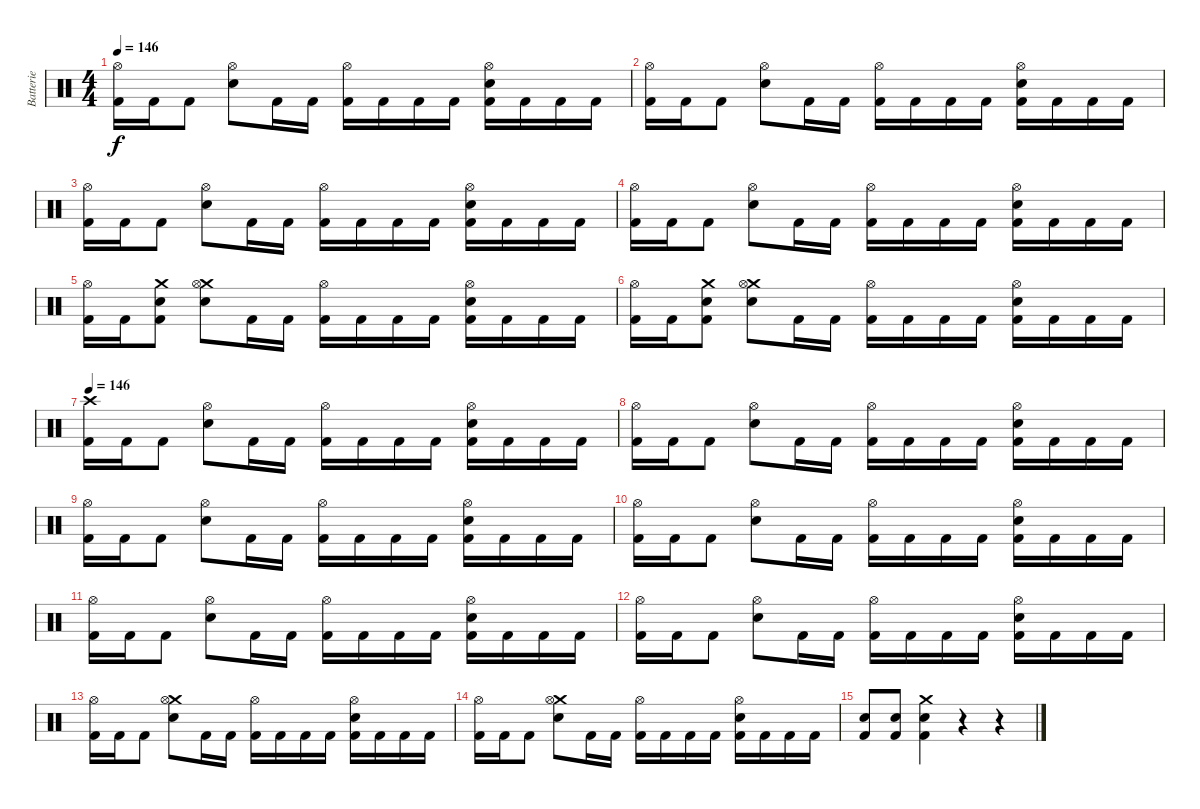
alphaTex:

\track ("Batterie" "Batterie") {instrument percussion}
\staff {score}
\articulation defaults
\ts (4 4)
\tempo 146
\clef neutral
\ks c
("Hi-Hat (open)" "Kick (hit) 2").16{dy f} "Kick (hit) 2".16 "Kick (hit) 2".8 ("Hi-Hat (open)" "Electric Snare (hit)").8 "Kick (hit) 2".16 "Kick (hit) 2".16 ("Hi-Hat (open)" "Kick (hit) 2").16 "Kick (hit) 2".16 "Kick (hit) 2".16 "Kick (hit) 2".16 ("Electric Snare (hit)" "Hi-Hat (open)" "Kick (hit) 2").16 "Kick (hit) 2".16 "Kick (hit) 2".16 "Kick (hit) 2".16 |
("Hi-Hat (open)" "Kick (hit) 2").16 "Kick (hit) 2".16 "Kick (hit) 2".8 ("Hi-Hat (open)" "Electric Snare (hit)").8 "Kick (hit) 2".16 "Kick (hit) 2".16 ("Hi-Hat (open)" "Kick (hit) 2").16 "Kick (hit) 2".16 "Kick (hit) 2".16 "Kick (hit) 2".16 ("Electric Snare (hit)" "Hi-Hat (open)" "Kick (hit) 2").16 "Kick (hit) 2".16 "Kick (hit) 2".16 "Kick (hit) 2".16 |
("Hi-Hat (open)" "Kick (hit) 2").16 "Kick (hit) 2".16 "Kick (hit) 2".8 ("Hi-Hat (open)" "Electric Snare (hit)").8 "Kick (hit) 2".16 "Kick (hit) 2".16 ("Hi-Hat (open)" "Kick (hit) 2").16 "Kick (hit) 2".16 "Kick (hit) 2".16 "Kick (hit) 2".16 ("Electric Snare (hit)" "Hi-Hat (open)" "Kick (hit) 2").16 "Kick (hit) 2".16 "Kick (hit) 2".16 "Kick (hit) 2".16 |
("Hi-Hat (open)" "Kick (hit) 2").16 "Kick (hit) 2".16 "Kick (hit) 2".8 ("Hi-Hat (open)" "Electric Snare (hit)").8 "Kick (hit) 2".16 "Kick (hit) 2".16 ("Hi-Hat (open)" "Kick (hit) 2").16 "Kick (hit) 2".16 "Kick (hit) 2".16 "Kick (hit) 2".16 ("Electric Snare (hit)" "Hi-Hat (open)" "Kick (hit) 2").16 "Kick (hit) 2".16 "Kick (hit) 2".16 "Kick (hit) 2".16 |
("Hi-Hat (open)" "Kick (hit) 2").16 "Kick (hit) 2".16 ("Crash medium (hit)" "Electric Snare (hit)" "Kick (hit) 2").8 ("Crash medium (hit)" "Hi-Hat (open)" "Electric Snare (hit)").8 "Kick (hit) 2".16 "Kick (hit) 2".16 ("Hi-Hat (open)" "Kick (hit) 2").16 "Kick (hit) 2".16 "Kick (hit) 2".16 "Kick (hit) 2".16 ("Electric Snare (hit)" "Hi-Hat (open)" "Kick (hit) 2").16 "Kick (hit) 2".16 "Kick (hit) 2".16 "Kick (hit) 2".16 |
("Hi-Hat (open)" "Kick (hit) 2").16 "Kick (hit) 2".16 ("Crash medium (hit)" "Electric Snare (hit)" "Kick (hit) 2").8 ("Crash medium (hit)" "Hi-Hat (open)" "Electric Snare (hit)").8 "Kick (hit) 2".16 "Kick (hit) 2".16 ("Hi-Hat (open)" "Kick (hit) 2").16 "Kick (hit) 2".16 "Kick (hit) 2".16 "Kick (hit) 2".16 ("Electric Snare (hit)" "Hi-Hat (open)" "Kick (hit) 2").16 "Kick (hit) 2".16 "Kick (hit) 2".16 "Kick (hit) 2".16 |
\tempo 146
("Crash high (hit)" "Kick (hit) 2").16 "Kick (hit) 2".16 "Kick (hit) 2".8 ("Hi-Hat (open)" "Electric Snare (hit)").8 "Kick (hit) 2".16 "Kick (hit) 2".16 ("Hi-Hat (open)" "Kick (hit) 2").16 "Kick (hit) 2".16 "Kick (hit) 2".16 "Kick (hit) 2".16 ("Electric Snare (hit)" "Hi-Hat (open)" "Kick (hit) 2").16 "Kick (hit) 2".16 "Kick (hit) 2".16 "Kick (hit) 2".16 |
("Hi-Hat (open)" "Kick (hit) 2").16 "Kick (hit) 2".16 "Kick (hit) 2".8 ("Hi-Hat (open)" "Electric Snare (hit)").8 "Kick (hit) 2".16 "Kick (hit) 2".16 ("Hi-Hat (open)" "Kick (hit) 2").16 "Kick (hit) 2".16 "Kick (hit) 2".16 "Kick (hit) 2".16 ("Electric Snare (hit)" "Hi-Hat (open)" "Kick (hit) 2").16 "Kick (hit) 2".16 "Kick (hit) 2".16 "Kick (hit) 2".16 |
("Hi-Hat (open)" "Kick (hit) 2").16 "Kick (hit) 2".16 "Kick (hit) 2".8 ("Hi-Hat (open)" "Electric Snare (hit)").8 "Kick (hit) 2".16 "Kick (hit) 2".16 ("Hi-Hat (open)" "Kick (hit) 2").16 "Kick (hit) 2".16 "Kick (hit) 2".16 "Kick (hit) 2".16 ("Electric Snare (hit)" "Hi-Hat (open)" "Kick (hit) 2").16 "Kick (hit) 2".16 "Kick (hit) 2".16 "Kick (hit) 2".16 |
("Hi-Hat (open)" "Kick (hit) 2").16 "Kick (hit) 2".16 "Kick (hit) 2".8 ("Hi-Hat (open)" "Electric Snare (hit)").8 "Kick (hit) 2".16 "Kick (hit) 2".16 ("Hi-Hat (open)" "Kick (hit) 2").16 "Kick (hit) 2".16 "Kick (hit) 2".16 "Kick (hit) 2".16 ("Electric Snare (hit)" "Hi-Hat (open)" "Kick (hit) 2").16 "Kick (hit) 2".16 "Kick (hit) 2".16 "Kick (hit) 2".16 |
("Hi-Hat (open)" "Kick (hit) 2").16 "Kick (hit) 2".16 "Kick (hit) 2".8 ("Hi-Hat (open)" "Electric Snare (hit)").8 "Kick (hit) 2".16 "Kick (hit) 2".16 ("Hi-Hat (open)" "Kick (hit) 2").16 "Kick (hit) 2".16 "Kick (hit) 2".16 "Kick (hit) 2".16 ("Electric Snare (hit)" "Hi-Hat (open)" "Kick (hit) 2").16 "Kick (hit) 2".16 "Kick (hit) 2".16 "Kick (hit) 2".16 |
("Hi-Hat (open)" "Kick (hit) 2").16 "Kick (hit) 2".16 "Kick (hit) 2".8 ("Hi-Hat (open)" "Electric Snare (hit)").8 "Kick (hit) 2".16 "Kick (hit) 2".16 ("Hi-Hat (open)" "Kick (hit) 2").16 "Kick (hit) 2".16 "Kick (hit) 2".16 "Kick (hit) 2".16 ("Electric Snare (hit)" "Hi-Hat (open)" "Kick (hit) 2").16 "Kick (hit) 2".16 "Kick (hit) 2".16 "Kick (hit) 2".16 |
("Hi-Hat (open)" "Kick (hit) 2").16 "Kick (hit) 2".16 "Kick (hit) 2".8 ("Crash medium (hit)" "Hi-Hat (open)" "Electric Snare (hit)").8 "Kick (hit) 2".16 "Kick (hit) 2".16 ("Hi-Hat (open)" "Kick (hit) 2").16 "Kick (hit) 2".16 "Kick (hit) 2".16 "Kick (hit) 2".16 ("Electric Snare (hit)" "Hi-Hat (open)" "Kick (hit) 2").16 "Kick (hit) 2".16 "Kick (hit) 2".16 "Kick (hit) 2".16 |
("Hi-Hat (open)" "Kick (hit) 2").16 "Kick (hit) 2".16 "Kick (hit) 2".8 ("Crash medium (hit)" "Hi-Hat (open)" "Electric Snare (hit)").8 "Kick (hit) 2".16 "Kick (hit) 2".16 ("Hi-Hat (open)" "Kick (hit) 2").16 "Kick (hit) 2".16 "Kick (hit) 2".16 "Kick (hit) 2".16 ("Electric Snare (hit)" "Hi-Hat (open)" "Kick (hit) 2").16 "Kick (hit) 2".16 "Kick (hit) 2".16 "Kick (hit) 2".16 |
("Electric Snare (hit)" "Kick (hit) 2").8 ("Electric Snare (hit)" "Kick (hit) 2").8 ("Crash medium (hit)" "Electric Snare (hit)" "Kick (hit) 2").4 r.4 r.4
